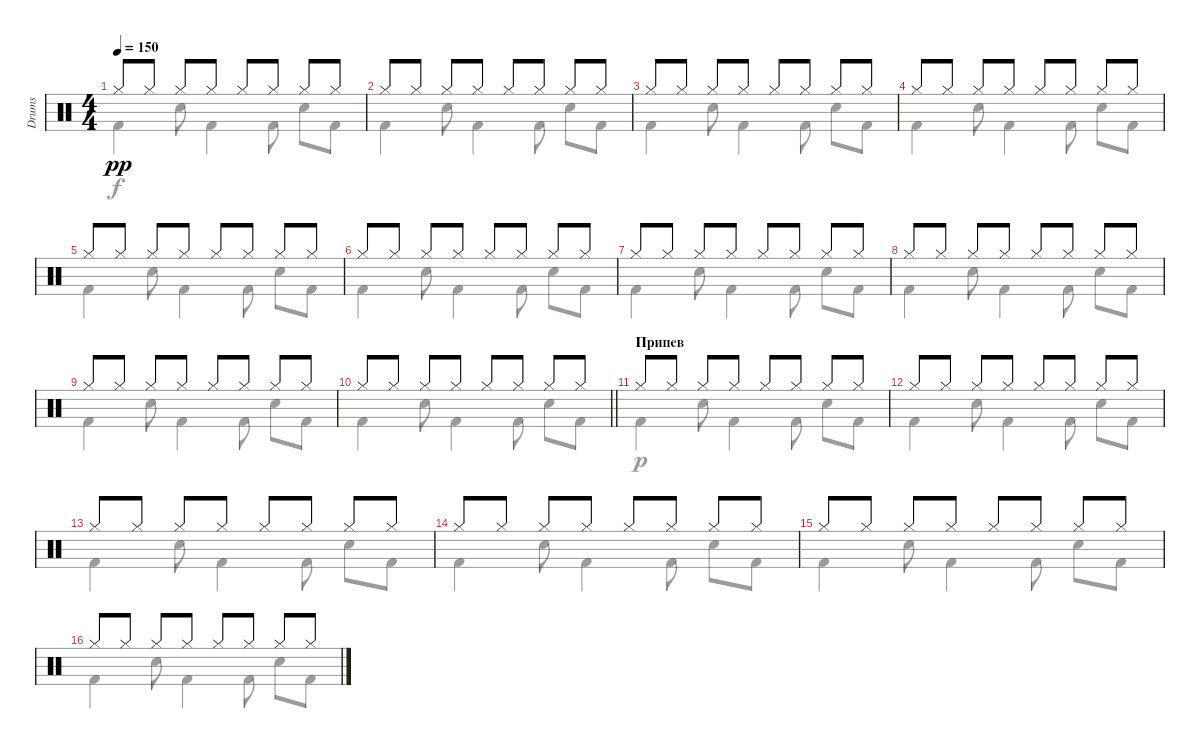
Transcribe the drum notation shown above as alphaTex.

\track ("Drums" "Drums") {instrument percussion}
\staff {score}
\articulation defaults
\voice
\ts (4 4)
\tempo 150
\clef neutral
\ks c "Hi-Hat (closed)".8{dy pp} "Hi-Hat (closed)".8 "Hi-Hat (closed)".8 "Hi-Hat (closed)".8 "Hi-Hat (closed)".8 "Hi-Hat (closed)".8 "Hi-Hat (closed)".8 "Hi-Hat (closed)".8
|
"Hi-Hat (closed)".8 "Hi-Hat (closed)".8 "Hi-Hat (closed)".8 "Hi-Hat (closed)".8 "Hi-Hat (closed)".8 "Hi-Hat (closed)".8 "Hi-Hat (closed)".8 "Hi-Hat (closed)".8 |
"Hi-Hat (closed)".8 "Hi-Hat (closed)".8 "Hi-Hat (closed)".8 "Hi-Hat (closed)".8 "Hi-Hat (closed)".8 "Hi-Hat (closed)".8 "Hi-Hat (closed)".8 "Hi-Hat (closed)".8 |
"Hi-Hat (closed)".8 "Hi-Hat (closed)".8 "Hi-Hat (closed)".8 "Hi-Hat (closed)".8 "Hi-Hat (closed)".8 "Hi-Hat (closed)".8 "Hi-Hat (closed)".8 "Hi-Hat (closed)".8 |
"Hi-Hat (closed)".8 "Hi-Hat (closed)".8 "Hi-Hat (closed)".8 "Hi-Hat (closed)".8 "Hi-Hat (closed)".8 "Hi-Hat (closed)".8 "Hi-Hat (closed)".8 "Hi-Hat (closed)".8 |
"Hi-Hat (closed)".8 "Hi-Hat (closed)".8 "Hi-Hat (closed)".8 "Hi-Hat (closed)".8 "Hi-Hat (closed)".8 "Hi-Hat (closed)".8 "Hi-Hat (closed)".8 "Hi-Hat (closed)".8 |
"Hi-Hat (closed)".8 "Hi-Hat (closed)".8 "Hi-Hat (closed)".8 "Hi-Hat (closed)".8 "Hi-Hat (closed)".8 "Hi-Hat (closed)".8 "Hi-Hat (closed)".8 "Hi-Hat (closed)".8 |
"Hi-Hat (closed)".8 "Hi-Hat (closed)".8 "Hi-Hat (closed)".8 "Hi-Hat (closed)".8 "Hi-Hat (closed)".8 "Hi-Hat (closed)".8 "Hi-Hat (closed)".8 "Hi-Hat (closed)".8 |
"Hi-Hat (closed)".8 "Hi-Hat (closed)".8 "Hi-Hat (closed)".8 "Hi-Hat (closed)".8 "Hi-Hat (closed)".8 "Hi-Hat (closed)".8 "Hi-Hat (closed)".8 "Hi-Hat (closed)".8 |
\barLineRight lightlight "Hi-Hat (closed)".8 "Hi-Hat (closed)".8 "Hi-Hat (closed)".8 "Hi-Hat (closed)".8 "Hi-Hat (closed)".8 "Hi-Hat (closed)".8 "Hi-Hat (closed)".8 "Hi-Hat (closed)".8
|
\section ("" "Припев")
"Hi-Hat (closed)".8{volume 4 balance 4} "Hi-Hat (closed)".8 "Hi-Hat (closed)".8 "Hi-Hat (closed)".8 "Hi-Hat (closed)".8 "Hi-Hat (closed)".8 "Hi-Hat (closed)".8 "Hi-Hat (closed)".8 |
"Hi-Hat (closed)".8 "Hi-Hat (closed)".8 "Hi-Hat (closed)".8 "Hi-Hat (closed)".8 "Hi-Hat (closed)".8 "Hi-Hat (closed)".8 "Hi-Hat (closed)".8 "Hi-Hat (closed)".8 |
"Hi-Hat (closed)".8 "Hi-Hat (closed)".8 "Hi-Hat (closed)".8 "Hi-Hat (closed)".8 "Hi-Hat (closed)".8 "Hi-Hat (closed)".8 "Hi-Hat (closed)".8 "Hi-Hat (closed)".8 |
"Hi-Hat (closed)".8 "Hi-Hat (closed)".8 "Hi-Hat (closed)".8 "Hi-Hat (closed)".8 "Hi-Hat (closed)".8 "Hi-Hat (closed)".8 "Hi-Hat (closed)".8 "Hi-Hat (closed)".8 |
"Hi-Hat (closed)".8{volume 4 balance 4} "Hi-Hat (closed)".8 "Hi-Hat (closed)".8 "Hi-Hat (closed)".8 "Hi-Hat (closed)".8 "Hi-Hat (closed)".8 "Hi-Hat (closed)".8 "Hi-Hat (closed)".8 |
"Hi-Hat (closed)".8 "Hi-Hat (closed)".8 "Hi-Hat (closed)".8 "Hi-Hat (closed)".8 "Hi-Hat (closed)".8 "Hi-Hat (closed)".8 "Hi-Hat (closed)".8 "Hi-Hat (closed)".8
\voice
\clef neutral
\ottava regular
\simile none
\ks c "Kick (hit) 2".4{dy f} "Electric Snare (hit)".8 "Kick (hit) 2".4 "Kick (hit) 2".8 "Electric Snare (hit)".8 "Kick (hit) 2".8
|
"Kick (hit) 2".4 "Electric Snare (hit)".8 "Kick (hit) 2".4 "Kick (hit) 2".8 "Electric Snare (hit)".8 "Kick (hit) 2".8 |
"Kick (hit) 2".4 "Electric Snare (hit)".8 "Kick (hit) 2".4 "Kick (hit) 2".8 "Electric Snare (hit)".8 "Kick (hit) 2".8 |
"Kick (hit) 2".4 "Electric Snare (hit)".8 "Kick (hit) 2".4 "Kick (hit) 2".8 "Electric Snare (hit)".8 "Kick (hit) 2".8 |
"Kick (hit) 2".4 "Electric Snare (hit)".8 "Kick (hit) 2".4 "Kick (hit) 2".8 "Electric Snare (hit)".8 "Kick (hit) 2".8 |
"Kick (hit) 2".4 "Electric Snare (hit)".8 "Kick (hit) 2".4 "Kick (hit) 2".8 "Electric Snare (hit)".8 "Kick (hit) 2".8 |
"Kick (hit) 2".4 "Electric Snare (hit)".8 "Kick (hit) 2".4 "Kick (hit) 2".8 "Electric Snare (hit)".8 "Kick (hit) 2".8 |
"Kick (hit) 2".4 "Electric Snare (hit)".8 "Kick (hit) 2".4 "Kick (hit) 2".8 "Electric Snare (hit)".8 "Kick (hit) 2".8 |
"Kick (hit) 2".4 "Electric Snare (hit)".8 "Kick (hit) 2".4 "Kick (hit) 2".8 "Electric Snare (hit)".8 "Kick (hit) 2".8 |
\barLineRight lightlight "Kick (hit) 2".4 "Electric Snare (hit)".8 "Kick (hit) 2".4 "Kick (hit) 2".8 "Electric Snare (hit)".8 "Kick (hit) 2".8
|
"Kick (hit) 2".4{dy p} "Electric Snare (hit)".8 "Kick (hit) 2".4 "Kick (hit) 2".8 "Electric Snare (hit)".8 "Kick (hit) 2".8 |
"Kick (hit) 2".4 "Electric Snare (hit)".8 "Kick (hit) 2".4 "Kick (hit) 2".8 "Electric Snare (hit)".8 "Kick (hit) 2".8 |
"Kick (hit) 2".4 "Electric Snare (hit)".8 "Kick (hit) 2".4 "Kick (hit) 2".8 "Electric Snare (hit)".8 "Kick (hit) 2".8 |
"Kick (hit) 2".4 "Electric Snare (hit)".8 "Kick (hit) 2".4 "Kick (hit) 2".8 "Electric Snare (hit)".8 "Kick (hit) 2".8 |
"Kick (hit) 2".4 "Electric Snare (hit)".8 "Kick (hit) 2".4 "Kick (hit) 2".8 "Electric Snare (hit)".8 "Kick (hit) 2".8 |
"Kick (hit) 2".4 "Electric Snare (hit)".8 "Kick (hit) 2".4 "Kick (hit) 2".8 "Electric Snare (hit)".8 "Kick (hit) 2".8
